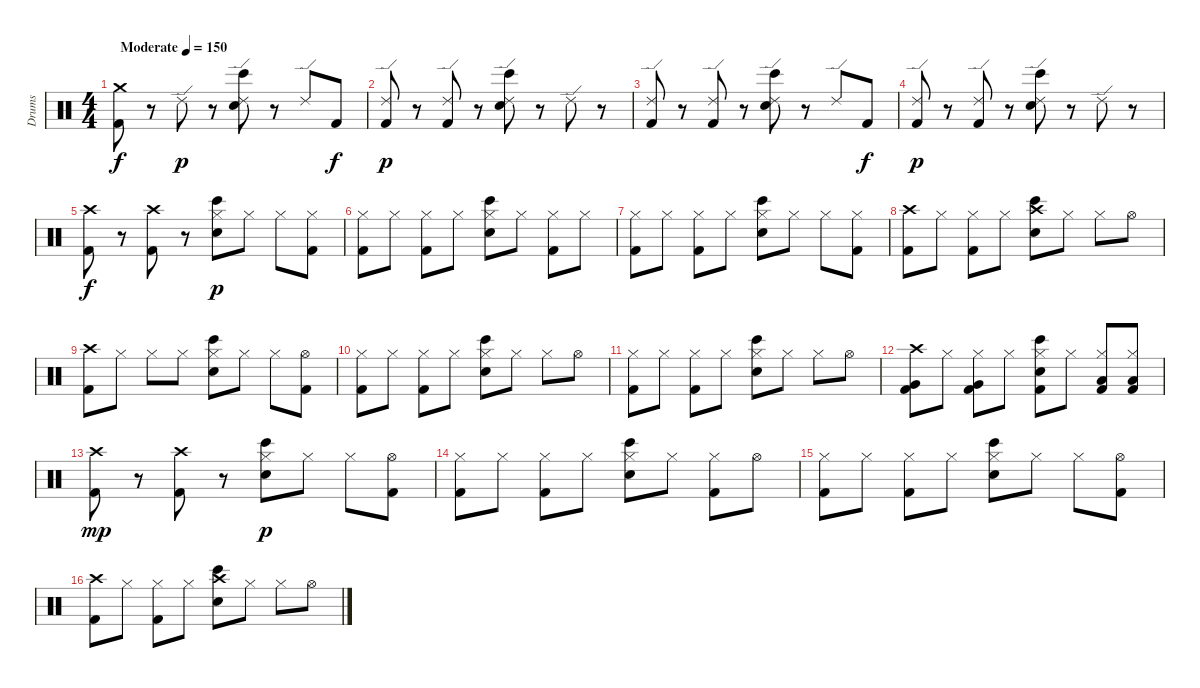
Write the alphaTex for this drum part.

\track ("Drums" "Drums") {instrument percussion}
\staff {score}
\articulation defaults
\ts (4 4)
\tempo (150 "Moderate")
\clef neutral
\ks c
("Crash medium (hit)" "Kick (hit) 2").8{dy f} r.8 "Ride (edge) 2".8{dy p} r.8 ("Ride (edge) 2" "Bongo High (hit)" "Electric Snare (hit)").8 r.8 "Ride (edge) 2".8 "Kick (hit) 2".8{dy f} |
("Ride (edge) 2" "Kick (hit) 2").8{dy p} r.8 ("Ride (edge) 2" "Kick (hit) 2").8 r.8 ("Ride (edge) 2" "Bongo High (hit)" "Electric Snare (hit)").8 r.8 "Ride (edge) 2".8 r.8 |
("Ride (edge) 2" "Kick (hit) 2").8 r.8 ("Ride (edge) 2" "Kick (hit) 2").8 r.8 ("Ride (edge) 2" "Bongo High (hit)" "Electric Snare (hit)").8 r.8 "Ride (edge) 2".8 "Kick (hit) 2".8{dy f} |
("Ride (edge) 2" "Kick (hit) 2").8{dy p} r.8 ("Ride (edge) 2" "Kick (hit) 2").8 r.8 ("Ride (edge) 2" "Bongo High (hit)" "Electric Snare (hit)").8 r.8 "Ride (edge) 2".8 r.8 |
("Crash high (hit)" "Kick (hit) 2").8{dy f} r.8 ("Crash high (hit)" "Kick (hit) 2").8 r.8 ("Hi-Hat (closed)" "Bongo High (hit)" "Electric Snare (hit)").8{dy p} "Hi-Hat (closed)".8 "Hi-Hat (closed)".8 ("Hi-Hat (closed)" "Kick (hit) 2").8 |
("Hi-Hat (closed)" "Kick (hit) 2").8 "Hi-Hat (closed)".8 ("Hi-Hat (closed)" "Kick (hit) 2").8 "Hi-Hat (closed)".8 ("Hi-Hat (closed)" "Bongo High (hit)" "Electric Snare (hit)").8 "Hi-Hat (closed)".8 ("Hi-Hat (closed)" "Kick (hit) 2").8 "Hi-Hat (closed)".8 |
("Hi-Hat (closed)" "Kick (hit) 2").8 "Hi-Hat (closed)".8 ("Hi-Hat (closed)" "Kick (hit) 2").8 "Hi-Hat (closed)".8 ("Hi-Hat (closed)" "Bongo High (hit)" "Electric Snare (hit)").8 "Hi-Hat (closed)".8 "Hi-Hat (closed)".8 ("Hi-Hat (closed)" "Kick (hit) 2").8 |
("Crash high (hit)" "Kick (hit) 2").8 "Hi-Hat (closed)".8 ("Hi-Hat (closed)" "Kick (hit) 2").8 "Hi-Hat (closed)".8 ("Crash high (hit)" "Bongo High (hit)" "Electric Snare (hit)").8 "Hi-Hat (closed)".8 "Hi-Hat (closed)".8 "Hi-Hat (open)".8 |
("Crash high (hit)" "Kick (hit) 2").8 "Hi-Hat (closed)".8 "Hi-Hat (closed)".8 "Hi-Hat (closed)".8 ("Hi-Hat (closed)" "Bongo High (hit)" "Electric Snare (hit)").8 "Hi-Hat (closed)".8 "Hi-Hat (closed)".8 ("Hi-Hat (open)" "Kick (hit) 2").8 |
("Hi-Hat (closed)" "Kick (hit) 2").8 "Hi-Hat (closed)".8 ("Hi-Hat (closed)" "Kick (hit) 2").8 "Hi-Hat (closed)".8 ("Hi-Hat (closed)" "Bongo High (hit)" "Electric Snare (hit)").8 "Hi-Hat (closed)".8 "Hi-Hat (closed)".8 "Hi-Hat (open)".8 |
("Hi-Hat (closed)" "Kick (hit) 2").8 "Hi-Hat (closed)".8 ("Hi-Hat (closed)" "Kick (hit) 2").8 "Hi-Hat (closed)".8 ("Hi-Hat (closed)" "Bongo High (hit)" "Electric Snare (hit)").8 "Hi-Hat (closed)".8 "Hi-Hat (closed)".8 "Hi-Hat (open)".8 |
("Crash high (hit)" "Very Low Tom (hit)" "Kick (hit) 2").8 "Hi-Hat (closed)".8 ("Hi-Hat (closed)" "Very Low Tom (hit)" "Kick (hit) 2").8 "Hi-Hat (closed)".8 ("Hi-Hat (closed)" "Bongo High (hit)" "Electric Snare (hit)" "Kick (hit) 2").8 "Hi-Hat (closed)".8 ("Hi-Hat (closed)" "Low Tom (hit)" "Kick (hit) 2").8 ("Hi-Hat (closed)" "Low Tom (hit)" "Kick (hit) 2").8 |
("Crash high (hit)" "Kick (hit) 2").8{dy mp} r.8 ("Crash high (hit)" "Kick (hit) 2").8 r.8 ("Hi-Hat (closed)" "Bongo High (hit)" "Electric Snare (hit)").8{dy p} "Hi-Hat (closed)".8 "Hi-Hat (closed)".8 ("Hi-Hat (open)" "Kick (hit) 2").8 |
("Hi-Hat (closed)" "Kick (hit) 2").8 "Hi-Hat (closed)".8 ("Hi-Hat (closed)" "Kick (hit) 2").8 "Hi-Hat (closed)".8 ("Hi-Hat (closed)" "Bongo High (hit)" "Electric Snare (hit)").8 "Hi-Hat (closed)".8 ("Hi-Hat (closed)" "Kick (hit) 2").8 "Hi-Hat (open)".8 |
("Hi-Hat (closed)" "Kick (hit) 2").8 "Hi-Hat (closed)".8 ("Hi-Hat (closed)" "Kick (hit) 2").8 "Hi-Hat (closed)".8 ("Hi-Hat (closed)" "Bongo High (hit)" "Electric Snare (hit)").8 "Hi-Hat (closed)".8 "Hi-Hat (closed)".8 ("Hi-Hat (open)" "Kick (hit) 2").8 |
("Crash high (hit)" "Kick (hit) 2").8 "Hi-Hat (closed)".8 ("Hi-Hat (closed)" "Kick (hit) 2").8 "Hi-Hat (closed)".8 ("Crash high (hit)" "Bongo High (hit)" "Electric Snare (hit)").8 "Hi-Hat (closed)".8 "Hi-Hat (closed)".8 "Hi-Hat (open)".8
